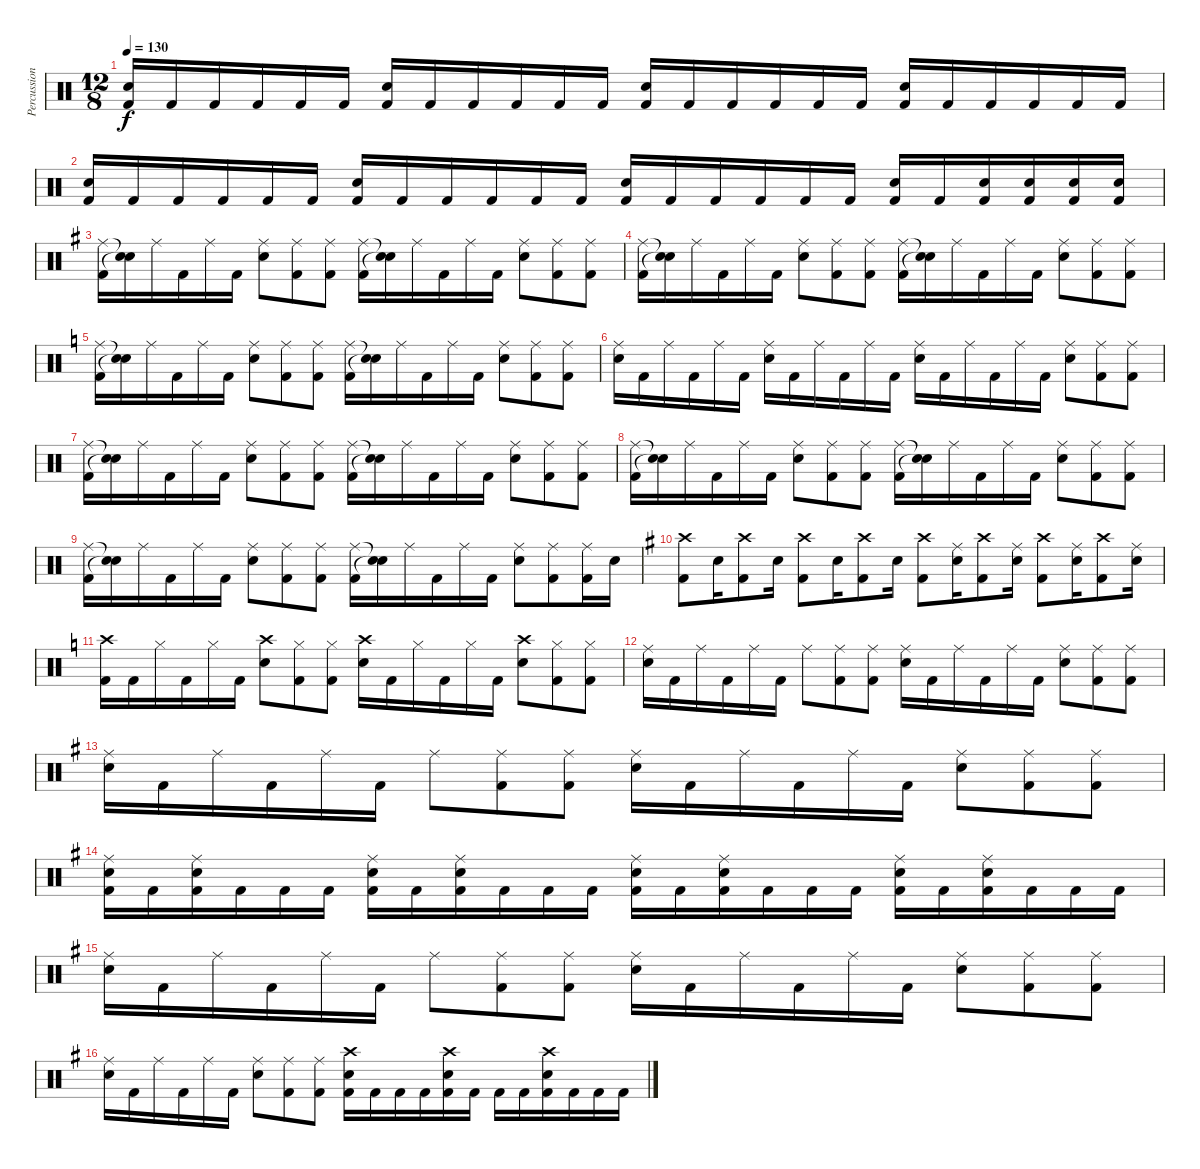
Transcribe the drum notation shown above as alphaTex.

\track ("Percussion" "Percussion") {instrument percussion}
\staff {score}
\articulation defaults
\ts (12 8)
\tempo 130
\clef neutral
\ks c
("Snare (hit) 2" "Kick (hit) 2").16{dy f} "Kick (hit) 2".16 "Kick (hit) 2".16 "Kick (hit) 2".16 "Kick (hit) 2".16 "Kick (hit) 2".16 ("Snare (hit) 2" "Kick (hit) 2").16 "Kick (hit) 2".16 "Kick (hit) 2".16 "Kick (hit) 2".16 "Kick (hit) 2".16 "Kick (hit) 2".16 ("Snare (hit) 2" "Kick (hit) 2").16 "Kick (hit) 2".16 "Kick (hit) 2".16 "Kick (hit) 2".16 "Kick (hit) 2".16 "Kick (hit) 2".16 ("Snare (hit) 2" "Kick (hit) 2").16 "Kick (hit) 2".16 "Kick (hit) 2".16 "Kick (hit) 2".16 "Kick (hit) 2".16 "Kick (hit) 2".16 |
("Snare (hit) 2" "Kick (hit) 2").16 "Kick (hit) 2".16 "Kick (hit) 2".16 "Kick (hit) 2".16 "Kick (hit) 2".16 "Kick (hit) 2".16 ("Snare (hit) 2" "Kick (hit) 2").16 "Kick (hit) 2".16 "Kick (hit) 2".16 "Kick (hit) 2".16 "Kick (hit) 2".16 "Kick (hit) 2".16 ("Snare (hit) 2" "Kick (hit) 2").16 "Kick (hit) 2".16 "Kick (hit) 2".16 "Kick (hit) 2".16 "Kick (hit) 2".16 "Kick (hit) 2".16 ("Snare (hit) 2" "Kick (hit) 2").16 "Kick (hit) 2".16 ("Snare (hit) 2" "Kick (hit) 2").16 ("Snare (hit) 2" "Kick (hit) 2").16 ("Snare (hit) 2" "Kick (hit) 2").16 ("Snare (hit) 2" "Kick (hit) 2").16 |
\ks g
("Ride (middle)" "Kick (hit) 2").16 ("Snare (hit)"{t} "Snare (hit)"{t}).16 "Ride (middle)".16 "Kick (hit) 2".16 "Ride (middle)".16 "Kick (hit) 2".16 ("Ride (middle)" "Snare (hit) 2").8 ("Ride (middle)" "Kick (hit) 2").8 ("Ride (middle)" "Kick (hit) 2").8 ("Ride (middle)" "Kick (hit) 2").16 ("Snare (hit)"{t} "Snare (hit)"{t}).16 "Ride (middle)".16 "Kick (hit) 2".16 "Ride (middle)".16 "Kick (hit) 2".16 ("Ride (middle)" "Snare (hit) 2").8 ("Ride (middle)" "Kick (hit) 2").8 ("Ride (middle)" "Kick (hit) 2").8 |
("Ride (middle)" "Kick (hit) 2").16 ("Snare (hit)"{t} "Snare (hit)"{t}).16 "Ride (middle)".16 "Kick (hit) 2".16 "Ride (middle)".16 "Kick (hit) 2".16 ("Ride (middle)" "Snare (hit) 2").8 ("Ride (middle)" "Kick (hit) 2").8 ("Ride (middle)" "Kick (hit) 2").8 ("Ride (middle)" "Kick (hit) 2").16 ("Snare (hit)"{t} "Snare (hit)"{t}).16 "Ride (middle)".16 "Kick (hit) 2".16 "Ride (middle)".16 "Kick (hit) 2".16 ("Ride (middle)" "Snare (hit) 2").8 ("Ride (middle)" "Kick (hit) 2").8 ("Ride (middle)" "Kick (hit) 2").8 |
\ks c
("Ride (middle)" "Kick (hit) 2").16 ("Snare (hit)"{t} "Snare (hit)"{t}).16 "Ride (middle)".16 "Kick (hit) 2".16 "Ride (middle)".16 "Kick (hit) 2".16 ("Ride (middle)" "Snare (hit) 2").8 ("Ride (middle)" "Kick (hit) 2").8 ("Ride (middle)" "Kick (hit) 2").8 ("Ride (middle)" "Kick (hit) 2").16 ("Snare (hit)"{t} "Snare (hit)"{t}).16 "Ride (middle)".16 "Kick (hit) 2".16 "Ride (middle)".16 "Kick (hit) 2".16 ("Ride (middle)" "Snare (hit) 2").8 ("Ride (middle)" "Kick (hit) 2").8 ("Ride (middle)" "Kick (hit) 2").8 |
("Ride (middle)" "Snare (hit) 2").16 "Kick (hit) 2".16 "Ride (middle)".16 "Kick (hit) 2".16 "Ride (middle)".16 "Kick (hit) 2".16 ("Ride (middle)" "Snare (hit) 2").16 "Kick (hit) 2".16 "Ride (middle)".16 "Kick (hit) 2".16 "Ride (middle)".16 "Kick (hit) 2".16 ("Ride (middle)" "Snare (hit) 2").16 "Kick (hit) 2".16 "Ride (middle)".16 "Kick (hit) 2".16 "Ride (middle)".16 "Kick (hit) 2".16 ("Ride (middle)" "Snare (hit) 2").8 ("Ride (middle)" "Kick (hit) 2").8 ("Ride (middle)" "Kick (hit) 2").8 |
("Ride (middle)" "Kick (hit) 2").16 ("Snare (hit)"{t} "Snare (hit)"{t}).16 "Ride (middle)".16 "Kick (hit) 2".16 "Ride (middle)".16 "Kick (hit) 2".16 ("Ride (middle)" "Snare (hit) 2").8 ("Ride (middle)" "Kick (hit) 2").8 ("Ride (middle)" "Kick (hit) 2").8 ("Ride (middle)" "Kick (hit) 2").16 ("Snare (hit)"{t} "Snare (hit)"{t}).16 "Ride (middle)".16 "Kick (hit) 2".16 "Ride (middle)".16 "Kick (hit) 2".16 ("Ride (middle)" "Snare (hit) 2").8 ("Ride (middle)" "Kick (hit) 2").8 ("Ride (middle)" "Kick (hit) 2").8 |
("Ride (middle)" "Kick (hit) 2").16 ("Snare (hit)"{t} "Snare (hit)"{t}).16 "Ride (middle)".16 "Kick (hit) 2".16 "Ride (middle)".16 "Kick (hit) 2".16 ("Ride (middle)" "Snare (hit) 2").8 ("Ride (middle)" "Kick (hit) 2").8 ("Ride (middle)" "Kick (hit) 2").8 ("Ride (middle)" "Kick (hit) 2").16 ("Snare (hit)"{t} "Snare (hit)"{t}).16 "Ride (middle)".16 "Kick (hit) 2".16 "Ride (middle)".16 "Kick (hit) 2".16 ("Ride (middle)" "Snare (hit) 2").8 ("Ride (middle)" "Kick (hit) 2").8 ("Ride (middle)" "Kick (hit) 2").8 |
("Ride (middle)" "Kick (hit) 2").16 ("Snare (hit)"{t} "Snare (hit)"{t}).16 "Ride (middle)".16 "Kick (hit) 2".16 "Ride (middle)".16 "Kick (hit) 2".16 ("Ride (middle)" "Snare (hit) 2").8 ("Ride (middle)" "Kick (hit) 2").8 ("Ride (middle)" "Kick (hit) 2").8 ("Ride (middle)" "Kick (hit) 2").16 ("Snare (hit)"{t} "Snare (hit)"{t}).16 "Ride (middle)".16 "Kick (hit) 2".16 "Ride (middle)".16 "Kick (hit) 2".16 ("Ride (middle)" "Snare (hit) 2").8 ("Ride (middle)" "Kick (hit) 2").8 ("Ride (middle)" "Kick (hit) 2").16 "Snare (hit) 2".16 |
\ks g
("Crash high (hit)" "Kick (hit) 2").8 "Snare (hit) 2".16 ("Crash high (hit)" "Kick (hit) 2").8 "Snare (hit) 2".16 ("Crash high (hit)" "Kick (hit) 2").8 "Snare (hit) 2".16 ("Crash high (hit)" "Kick (hit) 2").8 "Snare (hit) 2".16 ("Crash high (hit)" "Kick (hit) 2").8 ("Ride (middle)" "Snare (hit) 2").16 ("Crash high (hit)" "Kick (hit) 2").8 ("Ride (middle)" "Snare (hit) 2").16 ("Crash high (hit)" "Kick (hit) 2").8 ("Ride (middle)" "Snare (hit) 2").16 ("Crash high (hit)" "Kick (hit) 2").8 ("Ride (middle)" "Snare (hit) 2").16 |
\ks c
("Crash high (hit)" "Kick (hit) 2").16 "Kick (hit) 2".16 "Hi-Hat (closed)".16 "Kick (hit) 2".16 "Hi-Hat (closed)".16 "Kick (hit) 2".16 ("Crash high (hit)" "Snare (hit) 2").8 ("Hi-Hat (closed)" "Kick (hit) 2").8 ("Hi-Hat (closed)" "Kick (hit) 2").8 ("Crash high (hit)" "Snare (hit) 2").16 "Kick (hit) 2".16 "Hi-Hat (closed)".16 "Kick (hit) 2".16 "Hi-Hat (closed)".16 "Kick (hit) 2".16 ("Crash high (hit)" "Snare (hit) 2").8 ("Hi-Hat (closed)" "Kick (hit) 2").8 ("Hi-Hat (closed)" "Kick (hit) 2").8 |
("Ride (middle)" "Snare (hit) 2").16 "Kick (hit) 2".16 "Ride (middle)".16 "Kick (hit) 2".16 "Ride (middle)".16 "Kick (hit) 2".16 "Ride (middle)".8 ("Ride (middle)" "Kick (hit) 2").8 ("Ride (middle)" "Kick (hit) 2").8 ("Ride (middle)" "Snare (hit) 2").16 "Kick (hit) 2".16 "Ride (middle)".16 "Kick (hit) 2".16 "Ride (middle)".16 "Kick (hit) 2".16 ("Ride (middle)" "Snare (hit) 2").8 ("Ride (middle)" "Kick (hit) 2").8 ("Ride (middle)" "Kick (hit) 2").8 |
\ks g
("Ride (middle)" "Snare (hit) 2").16 "Kick (hit) 2".16 "Ride (middle)".16 "Kick (hit) 2".16 "Ride (middle)".16 "Kick (hit) 2".16 "Ride (middle)".8 ("Ride (middle)" "Kick (hit) 2").8 ("Ride (middle)" "Kick (hit) 2").8 ("Ride (middle)" "Snare (hit) 2").16 "Kick (hit) 2".16 "Ride (middle)".16 "Kick (hit) 2".16 "Ride (middle)".16 "Kick (hit) 2".16 ("Ride (middle)" "Snare (hit) 2").8 ("Ride (middle)" "Kick (hit) 2").8 ("Ride (middle)" "Kick (hit) 2").8 |
("Ride (middle)" "Snare (hit) 2" "Kick (hit) 2").16 "Kick (hit) 2".16 ("Ride (middle)" "Snare (hit) 2" "Kick (hit) 2").16 "Kick (hit) 2".16 "Kick (hit) 2".16 "Kick (hit) 2".16 ("Ride (middle)" "Snare (hit) 2" "Kick (hit) 2").16 "Kick (hit) 2".16 ("Ride (middle)" "Snare (hit) 2" "Kick (hit) 2").16 "Kick (hit) 2".16 "Kick (hit) 2".16 "Kick (hit) 2".16 ("Ride (middle)" "Snare (hit) 2" "Kick (hit) 2").16 "Kick (hit) 2".16 ("Ride (middle)" "Snare (hit) 2" "Kick (hit) 2").16 "Kick (hit) 2".16 "Kick (hit) 2".16 "Kick (hit) 2".16 ("Ride (middle)" "Snare (hit) 2" "Kick (hit) 2").16 "Kick (hit) 2".16 ("Ride (middle)" "Snare (hit) 2" "Kick (hit) 2").16 "Kick (hit) 2".16 "Kick (hit) 2".16 "Kick (hit) 2".16 |
("Ride (middle)" "Snare (hit) 2").16 "Kick (hit) 2".16 "Ride (middle)".16 "Kick (hit) 2".16 "Ride (middle)".16 "Kick (hit) 2".16 "Ride (middle)".8 ("Ride (middle)" "Kick (hit) 2").8 ("Ride (middle)" "Kick (hit) 2").8 ("Ride (middle)" "Snare (hit) 2").16 "Kick (hit) 2".16 "Ride (middle)".16 "Kick (hit) 2".16 "Ride (middle)".16 "Kick (hit) 2".16 ("Ride (middle)" "Snare (hit) 2").8 ("Ride (middle)" "Kick (hit) 2").8 ("Ride (middle)" "Kick (hit) 2").8 |
("Ride (middle)" "Snare (hit) 2").16 "Kick (hit) 2".16 "Ride (middle)".16 "Kick (hit) 2".16 "Ride (middle)".16 "Kick (hit) 2".16 ("Ride (middle)" "Snare (hit) 2").8 ("Ride (middle)" "Kick (hit) 2").8 ("Ride (middle)" "Kick (hit) 2").8 ("Crash high (hit)" "Snare (hit) 2" "Kick (hit) 2").16 "Kick (hit) 2".16 "Kick (hit) 2".16 "Kick (hit) 2".16 ("Crash high (hit)" "Snare (hit) 2" "Kick (hit) 2").16 "Kick (hit) 2".16 "Kick (hit) 2".16 "Kick (hit) 2".16 ("Crash high (hit)" "Snare (hit) 2" "Kick (hit) 2").16 "Kick (hit) 2".16 "Kick (hit) 2".16 "Kick (hit) 2".16
